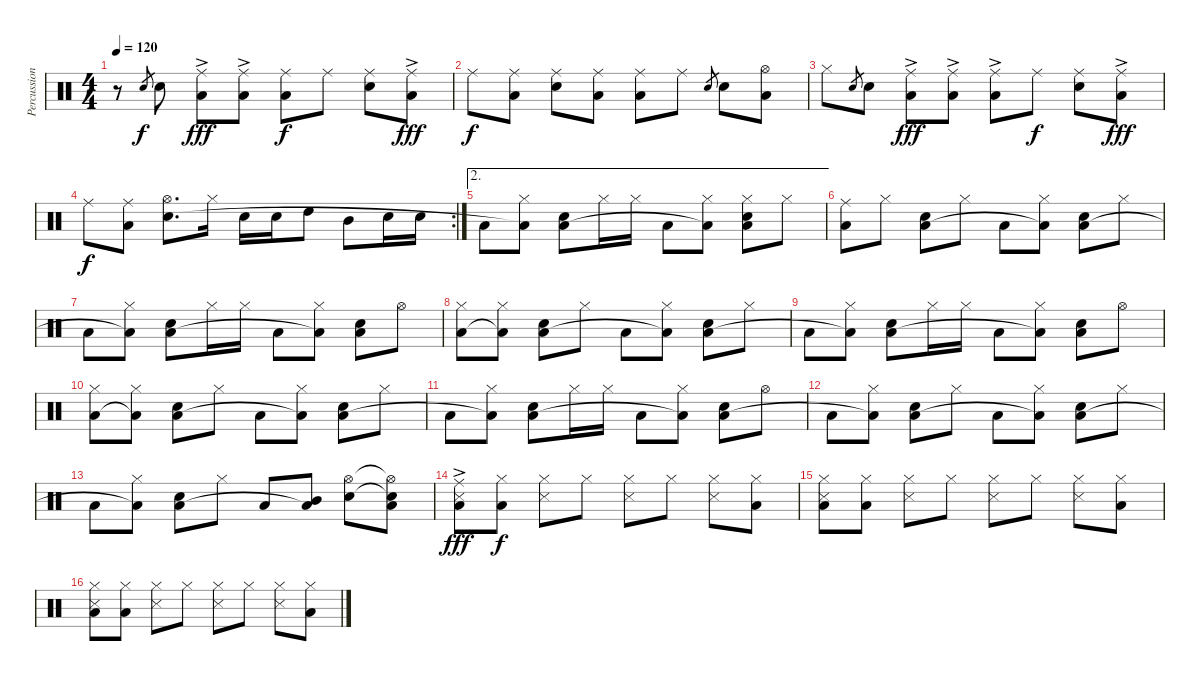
\track ("Percussion" "Percussion") {instrument percussion}
\staff {score}
\articulation defaults
\ts (4 4)
\tempo 120
\clef neutral
\ks c
r.8{dy f} "Snare (hit) 2".8{gr} "Snare (hit) 2".8 ("Ride (middle)"{ac} "Low Floor Tom (hit)").8{dy fff} ("Ride (middle)"{ac} "Low Floor Tom (hit)").8 ("Ride (middle)" "Low Floor Tom (hit)").8{dy f} "Ride (middle)".8 ("Ride (middle)" "Snare (hit) 2").8 ("Ride (middle)"{ac} "Low Floor Tom (hit)").8{dy fff} |
"Ride (middle)".8{dy f} ("Ride (middle)" "Low Floor Tom (hit)").8 ("Ride (middle)" "Snare (hit) 2").8 ("Ride (middle)" "Low Floor Tom (hit)").8 ("Ride (middle)" "Low Floor Tom (hit)").8 "Ride (middle)".8 "Snare (hit) 2".8{gr} "Snare (hit) 2".8 ("Hi-Hat (open)" "Low Floor Tom (hit)").8 |
"Hi-Hat (closed)".8 "Snare (hit) 2".8{gr} "Snare (hit) 2".8 ("Ride (middle)"{ac} "Low Floor Tom (hit)").8{dy fff} ("Ride (middle)"{ac} "Low Floor Tom (hit)").8 ("Ride (middle)"{ac} "Low Floor Tom (hit)").8 "Ride (middle)".8{dy f} ("Ride (middle)" "Snare (hit) 2").8 ("Ride (middle)"{ac} "Low Floor Tom (hit)").8{dy fff} |
\rc 2 "Ride (middle)".8{dy f}
("Ride (middle)" "Low Floor Tom (hit)").8 ("Hi-Hat (open)" "Snare (hit) 2").8{d} "Hi-Hat (closed)".16 "Snare (hit) 2".16 "Snare (hit) 2".16 "High Tom (hit)".8 "Mid Tom (hit)".8 "Snare (hit) 2".16 "Snare (hit) 2".16 |
\ae 2 "Low Floor Tom (hit)".8
("Hi-Hat (closed)" "Low Floor Tom (hit)"{t}).8 ("Snare (hit) 2" "Low Floor Tom (hit)").8 "Hi-Hat (closed)".16 "Hi-Hat (closed)".16 "Low Floor Tom (hit)".8 ("Hi-Hat (closed)" "Low Floor Tom (hit)"{t}).8 ("Hi-Hat (closed)" "Snare (hit) 2" "Low Floor Tom (hit)").8 "Hi-Hat (closed)".8 |
("Ride (middle)" "Low Floor Tom (hit)").8 "Hi-Hat (closed)".8 ("Snare (hit) 2" "Low Floor Tom (hit)").8 "Hi-Hat (closed)".8 "Low Floor Tom (hit)".8 ("Hi-Hat (closed)" "Low Floor Tom (hit)"{t}).8 ("Snare (hit) 2" "Low Floor Tom (hit)").8 "Hi-Hat (closed)".8 |
"Low Floor Tom (hit)".8 ("Hi-Hat (closed)" "Low Floor Tom (hit)"{t}).8 ("Snare (hit) 2" "Low Floor Tom (hit)").8 "Hi-Hat (closed)".16 "Hi-Hat (closed)".16 "Low Floor Tom (hit)".8 ("Hi-Hat (closed)" "Low Floor Tom (hit)"{t}).8 ("Snare (hit) 2" "Low Floor Tom (hit)").8 "Hi-Hat (open)".8 |
("Hi-Hat (closed)" "Low Floor Tom (hit)").8 ("Hi-Hat (closed)" "Low Floor Tom (hit)"{t}).8 ("Snare (hit) 2" "Low Floor Tom (hit)").8 "Hi-Hat (closed)".8 "Low Floor Tom (hit)".8 ("Hi-Hat (closed)" "Low Floor Tom (hit)"{t}).8 ("Snare (hit) 2" "Low Floor Tom (hit)").8 "Hi-Hat (closed)".8 |
"Low Floor Tom (hit)".8 ("Hi-Hat (closed)" "Low Floor Tom (hit)"{t}).8 ("Snare (hit) 2" "Low Floor Tom (hit)").8 "Hi-Hat (closed)".16 "Hi-Hat (closed)".16 "Low Floor Tom (hit)".8 ("Hi-Hat (closed)" "Low Floor Tom (hit)"{t}).8 ("Snare (hit) 2" "Low Floor Tom (hit)").8 "Hi-Hat (open)".8 |
("Hi-Hat (closed)" "Low Floor Tom (hit)").8 ("Hi-Hat (closed)" "Low Floor Tom (hit)"{t}).8 ("Snare (hit) 2" "Low Floor Tom (hit)").8 "Hi-Hat (closed)".8 "Low Floor Tom (hit)".8 ("Hi-Hat (closed)" "Low Floor Tom (hit)"{t}).8 ("Snare (hit) 2" "Low Floor Tom (hit)").8 "Hi-Hat (closed)".8 |
"Low Floor Tom (hit)".8 ("Hi-Hat (closed)" "Low Floor Tom (hit)"{t}).8 ("Snare (hit) 2" "Low Floor Tom (hit)").8 "Hi-Hat (closed)".16 "Hi-Hat (closed)".16 "Low Floor Tom (hit)".8 ("Hi-Hat (closed)" "Low Floor Tom (hit)"{t}).8 ("Snare (hit) 2" "Low Floor Tom (hit)").8 "Hi-Hat (open)".8 |
"Low Floor Tom (hit)".8 ("Hi-Hat (closed)" "Low Floor Tom (hit)"{t}).8 ("Snare (hit) 2" "Low Floor Tom (hit)").8 "Hi-Hat (closed)".8 "Low Floor Tom (hit)".8 ("Hi-Hat (closed)" "Low Floor Tom (hit)"{t}).8 ("Snare (hit) 2" "Low Floor Tom (hit)").8 "Hi-Hat (closed)".8 |
"Low Floor Tom (hit)".8 ("Hi-Hat (closed)" "Low Floor Tom (hit)"{t}).8 ("Snare (hit) 2" "Low Floor Tom (hit)").8 "Hi-Hat (closed)".8 "Low Floor Tom (hit)".8 ("Mid Tom (hit)" "Low Floor Tom (hit)"{t}).8 ("Hi-Hat (open)" "Snare (hit) 2").8 ("Hi-Hat (open)"{t} "Snare (hit) 2"{t} "Low Floor Tom (hit)").8 |
("Ride (middle)"{ac} "Snare (side stick) 3" "Low Floor Tom (hit)").8{dy fff} ("Hi-Hat (closed)" "Low Floor Tom (hit)").8{dy f} ("Hi-Hat (closed)" "Snare (side stick) 3").8 "Hi-Hat (closed)".8 ("Hi-Hat (closed)" "Snare (side stick) 3").8 "Hi-Hat (closed)".8 ("Hi-Hat (closed)" "Snare (side stick) 3").8 ("Hi-Hat (closed)" "Low Floor Tom (hit)").8 |
("Hi-Hat (closed)" "Snare (side stick) 3" "Low Floor Tom (hit)").8 ("Hi-Hat (closed)" "Low Floor Tom (hit)").8 ("Hi-Hat (closed)" "Snare (side stick) 3").8 "Hi-Hat (closed)".8 ("Hi-Hat (closed)" "Snare (side stick) 3").8 "Hi-Hat (closed)".8 ("Hi-Hat (closed)" "Snare (side stick) 3").8 ("Hi-Hat (closed)" "Low Floor Tom (hit)").8 |
("Hi-Hat (closed)" "Snare (side stick) 3" "Low Floor Tom (hit)").8 ("Hi-Hat (closed)" "Low Floor Tom (hit)").8 ("Hi-Hat (closed)" "Snare (side stick) 3").8 "Hi-Hat (closed)".8 ("Hi-Hat (closed)" "Snare (side stick) 3").8 "Hi-Hat (closed)".8 ("Hi-Hat (closed)" "Snare (side stick) 3").8 ("Hi-Hat (closed)" "Low Floor Tom (hit)").8
